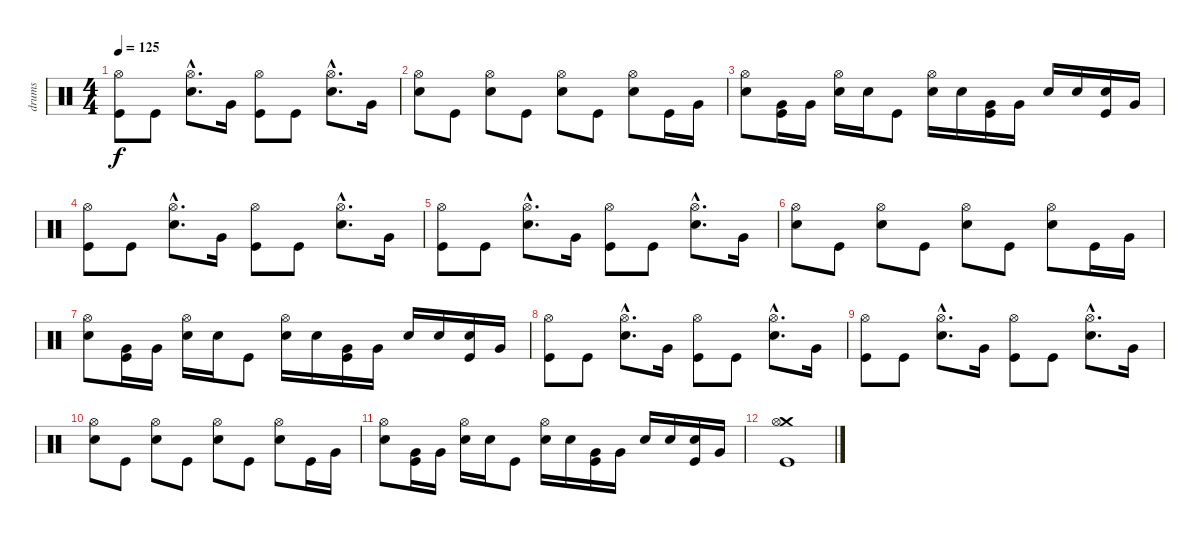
\track ("drums" "drums") {instrument percussion}
\staff {score}
\articulation defaults
\ts (4 4)
\tempo 125
\clef neutral
\ks c
("Hi-Hat (open)" "Kick (hit)").8{dy f} "Kick (hit)".8 ("Hi-Hat (open)"{hac} "Electric Snare (hit)"{hac}).8{d} "Very Low Tom (hit)".16 ("Hi-Hat (open)" "Kick (hit)").8 "Kick (hit)".8 ("Hi-Hat (open)"{hac} "Electric Snare (hit)"{hac}).8{d} "Very Low Tom (hit)".16 |
("Hi-Hat (open)" "Electric Snare (hit)").8 "Kick (hit)".8 ("Hi-Hat (open)" "Electric Snare (hit)").8 "Kick (hit)".8 ("Hi-Hat (open)" "Electric Snare (hit)").8 "Kick (hit)".8 ("Hi-Hat (open)" "Electric Snare (hit)").8 "Kick (hit)".16 "Very Low Tom (hit)".16 |
("Hi-Hat (open)" "Electric Snare (hit)").8 ("Very Low Tom (hit)" "Kick (hit)").16 "Very Low Tom (hit)".16 ("Hi-Hat (open)" "Electric Snare (hit)").16 "Electric Snare (hit)".16 "Kick (hit)".8 ("Hi-Hat (open)" "Electric Snare (hit)").16 "Electric Snare (hit)".16 ("Very Low Tom (hit)" "Kick (hit)").16 "Very Low Tom (hit)".16 "Electric Snare (hit)".16 "Electric Snare (hit)".16 ("Electric Snare (hit)" "Kick (hit)").16 "Very Low Tom (hit)".16 |
("Hi-Hat (open)" "Kick (hit)").8 "Kick (hit)".8 ("Hi-Hat (open)"{hac} "Electric Snare (hit)"{hac}).8{d} "Very Low Tom (hit)".16 ("Hi-Hat (open)" "Kick (hit)").8 "Kick (hit)".8 ("Hi-Hat (open)"{hac} "Electric Snare (hit)"{hac}).8{d} "Very Low Tom (hit)".16 |
("Hi-Hat (open)" "Kick (hit)").8 "Kick (hit)".8 ("Hi-Hat (open)"{hac} "Electric Snare (hit)"{hac}).8{d} "Very Low Tom (hit)".16 ("Hi-Hat (open)" "Kick (hit)").8 "Kick (hit)".8 ("Hi-Hat (open)"{hac} "Electric Snare (hit)"{hac}).8{d} "Very Low Tom (hit)".16 |
("Hi-Hat (open)" "Electric Snare (hit)").8 "Kick (hit)".8 ("Hi-Hat (open)" "Electric Snare (hit)").8 "Kick (hit)".8 ("Hi-Hat (open)" "Electric Snare (hit)").8 "Kick (hit)".8 ("Hi-Hat (open)" "Electric Snare (hit)").8 "Kick (hit)".16 "Very Low Tom (hit)".16 |
("Hi-Hat (open)" "Electric Snare (hit)").8 ("Very Low Tom (hit)" "Kick (hit)").16 "Very Low Tom (hit)".16 ("Hi-Hat (open)" "Electric Snare (hit)").16 "Electric Snare (hit)".16 "Kick (hit)".8 ("Hi-Hat (open)" "Electric Snare (hit)").16 "Electric Snare (hit)".16 ("Very Low Tom (hit)" "Kick (hit)").16 "Very Low Tom (hit)".16 "Electric Snare (hit)".16 "Electric Snare (hit)".16 ("Electric Snare (hit)" "Kick (hit)").16 "Very Low Tom (hit)".16 |
\section ("" "")
("Hi-Hat (open)" "Kick (hit)").8 "Kick (hit)".8 ("Hi-Hat (open)"{hac} "Electric Snare (hit)"{hac}).8{d} "Very Low Tom (hit)".16 ("Hi-Hat (open)" "Kick (hit)").8 "Kick (hit)".8 ("Hi-Hat (open)"{hac} "Electric Snare (hit)"{hac}).8{d} "Very Low Tom (hit)".16 |
("Hi-Hat (open)" "Kick (hit)").8 "Kick (hit)".8 ("Hi-Hat (open)"{hac} "Electric Snare (hit)"{hac}).8{d} "Very Low Tom (hit)".16 ("Hi-Hat (open)" "Kick (hit)").8 "Kick (hit)".8 ("Hi-Hat (open)"{hac} "Electric Snare (hit)"{hac}).8{d} "Very Low Tom (hit)".16 |
("Hi-Hat (open)" "Electric Snare (hit)").8 "Kick (hit)".8 ("Hi-Hat (open)" "Electric Snare (hit)").8 "Kick (hit)".8 ("Hi-Hat (open)" "Electric Snare (hit)").8 "Kick (hit)".8 ("Hi-Hat (open)" "Electric Snare (hit)").8 "Kick (hit)".16 "Very Low Tom (hit)".16 |
("Hi-Hat (open)" "Electric Snare (hit)").8 ("Very Low Tom (hit)" "Kick (hit)").16 "Very Low Tom (hit)".16 ("Hi-Hat (open)" "Electric Snare (hit)").16 "Electric Snare (hit)".16 "Kick (hit)".8 ("Hi-Hat (open)" "Electric Snare (hit)").16 "Electric Snare (hit)".16 ("Very Low Tom (hit)" "Kick (hit)").16 "Very Low Tom (hit)".16 "Electric Snare (hit)".16 "Electric Snare (hit)".16 ("Electric Snare (hit)" "Kick (hit)").16 "Very Low Tom (hit)".16 |
("Crash medium (hit)" "Hi-Hat (open)" "Kick (hit)").1
